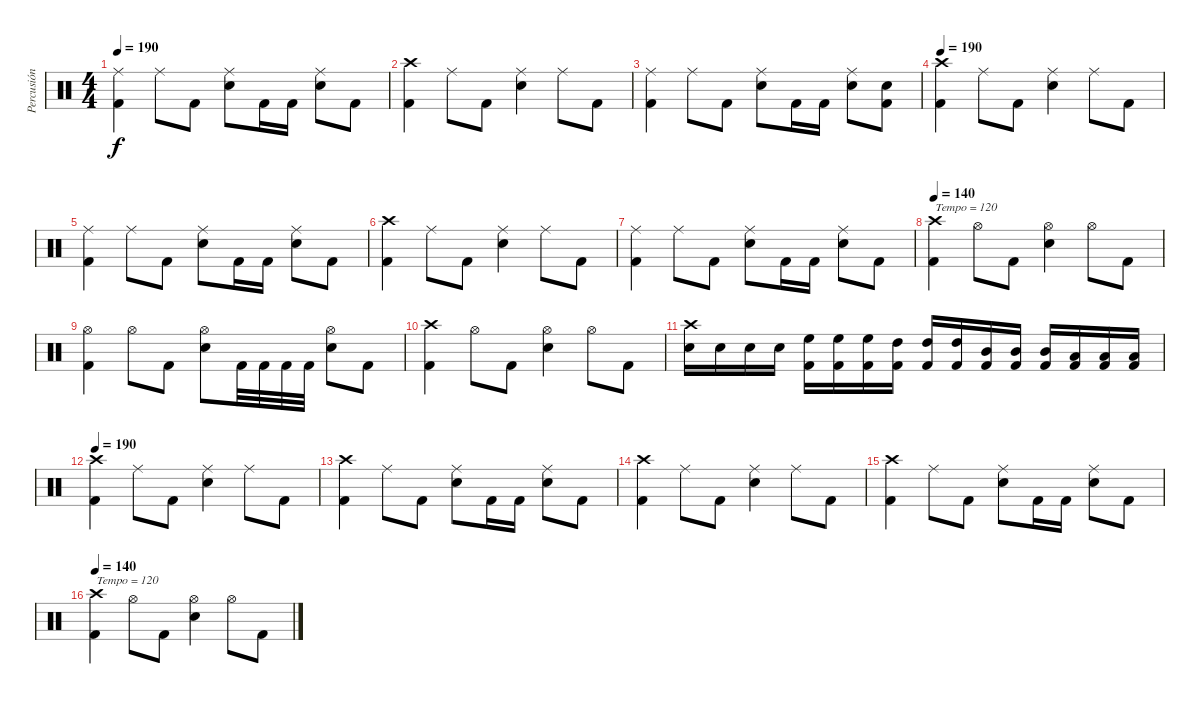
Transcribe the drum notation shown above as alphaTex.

\track ("Percusión" "Percusión") {instrument percussion}
\staff {score}
\articulation defaults
\ts (4 4)
\tempo 190
\clef neutral
\ks c
("Kick (hit) 2" "Ride (middle)").4{dy f} "Ride (middle)".8 "Kick (hit) 2".8 ("Snare (hit) 2" "Ride (middle)").8 "Kick (hit) 2".16 "Kick (hit) 2".16 ("Snare (hit) 2" "Ride (middle)").8 "Kick (hit) 2".8 |
("Kick (hit) 2" "Crash high (hit)").4 "Ride (middle)".8 "Kick (hit) 2".8 ("Snare (hit) 2" "Ride (middle)").4 "Ride (middle)".8 "Kick (hit) 2".8 |
("Kick (hit) 2" "Ride (middle)").4 "Ride (middle)".8 "Kick (hit) 2".8 ("Snare (hit) 2" "Ride (middle)").8 "Kick (hit) 2".16 "Kick (hit) 2".16 ("Snare (hit) 2" "Ride (middle)").8 ("Kick (hit) 2" "Snare (hit) 2").8 |
\tempo 190
("Kick (hit) 2" "Crash high (hit)").4 "Ride (middle)".8 "Kick (hit) 2".8 ("Snare (hit) 2" "Ride (middle)").4 "Ride (middle)".8 "Kick (hit) 2".8 |
("Kick (hit) 2" "Ride (middle)").4 "Ride (middle)".8 "Kick (hit) 2".8 ("Snare (hit) 2" "Ride (middle)").8 "Kick (hit) 2".16 "Kick (hit) 2".16 ("Snare (hit) 2" "Ride (middle)").8 "Kick (hit) 2".8 |
("Kick (hit) 2" "Crash high (hit)").4 "Ride (middle)".8 "Kick (hit) 2".8 ("Snare (hit) 2" "Ride (middle)").4 "Ride (middle)".8 "Kick (hit) 2".8 |
("Kick (hit) 2" "Ride (middle)").4 "Ride (middle)".8 "Kick (hit) 2".8 ("Snare (hit) 2" "Ride (middle)").8 "Kick (hit) 2".16 "Kick (hit) 2".16 ("Snare (hit) 2" "Ride (middle)").8 "Kick (hit) 2".8 |
\tempo 140
("Kick (hit) 2" "Crash high (hit)").4{txt "Tempo = 120"} "Hi-Hat (open)".8 "Kick (hit) 2".8 ("Snare (hit) 2" "Hi-Hat (open)").4 "Hi-Hat (open)".8 "Kick (hit) 2".8 |
("Kick (hit) 2" "Hi-Hat (open)").4 "Hi-Hat (open)".8 "Kick (hit) 2".8 ("Snare (hit) 2" "Hi-Hat (open)").8 "Kick (hit) 2".32 "Kick (hit) 2".32 "Kick (hit) 2".32 "Kick (hit) 2".32 ("Snare (hit) 2" "Hi-Hat (open)").8 "Kick (hit) 2".8 |
("Kick (hit) 2" "Crash high (hit)").4 "Hi-Hat (open)".8 "Kick (hit) 2".8 ("Snare (hit) 2" "Hi-Hat (open)").4 "Hi-Hat (open)".8 "Kick (hit) 2".8 |
("Snare (hit) 2" "Crash high (hit)").16 "Snare (hit) 2".16 "Snare (hit) 2".16 "Snare (hit) 2".16 ("Kick (hit) 2" "High Floor Tom (hit)").16 ("Kick (hit) 2" "High Floor Tom (hit)").16 ("Kick (hit) 2" "High Floor Tom (hit)").16 ("Kick (hit) 2" "High Tom (hit)").16 ("Kick (hit) 2" "High Tom (hit)").16 ("Kick (hit) 2" "High Tom (hit)").16 ("Kick (hit) 2" "Mid Tom (hit)").16 ("Kick (hit) 2" "Mid Tom (hit)").16 ("Kick (hit) 2" "Mid Tom (hit)").16 ("Kick (hit) 2" "Low Tom (hit)").16 ("Kick (hit) 2" "Low Tom (hit)").16 ("Kick (hit) 2" "Low Tom (hit)").16 |
\tempo 190
("Kick (hit) 2" "Crash high (hit)").4 "Ride (middle)".8 "Kick (hit) 2".8 ("Snare (hit) 2" "Ride (middle)").4 "Ride (middle)".8 "Kick (hit) 2".8 |
("Kick (hit) 2" "Crash high (hit)").4 "Ride (middle)".8 "Kick (hit) 2".8 ("Snare (hit) 2" "Ride (middle)").8 "Kick (hit) 2".16 "Kick (hit) 2".16 ("Snare (hit) 2" "Ride (middle)").8 "Kick (hit) 2".8 |
("Kick (hit) 2" "Crash high (hit)").4 "Ride (middle)".8 "Kick (hit) 2".8 ("Snare (hit) 2" "Ride (middle)").4 "Ride (middle)".8 "Kick (hit) 2".8 |
("Kick (hit) 2" "Crash high (hit)").4 "Ride (middle)".8 "Kick (hit) 2".8 ("Snare (hit) 2" "Ride (middle)").8 "Kick (hit) 2".16 "Kick (hit) 2".16 ("Snare (hit) 2" "Ride (middle)").8 "Kick (hit) 2".8 |
\tempo 140
("Kick (hit) 2" "Crash high (hit)").4{txt "Tempo = 120"} "Hi-Hat (open)".8 "Kick (hit) 2".8 ("Snare (hit) 2" "Hi-Hat (open)").4 "Hi-Hat (open)".8 "Kick (hit) 2".8
